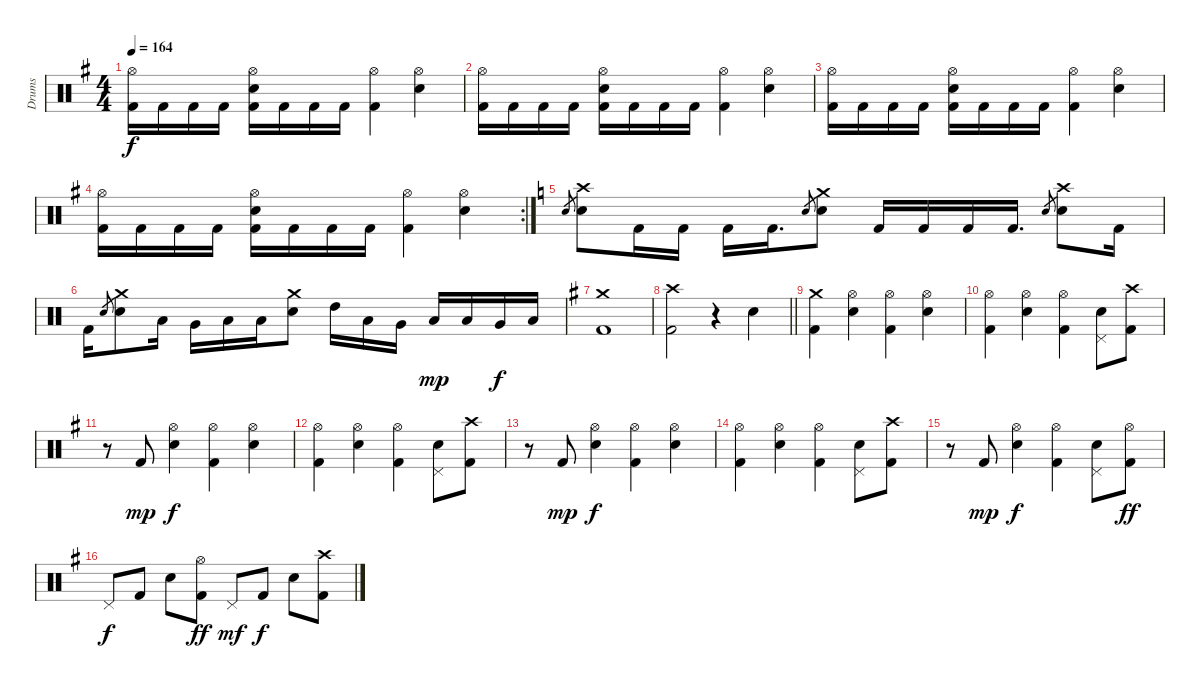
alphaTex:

\track ("Drums" "Drums") {instrument percussion}
\staff
\articulation defaults
\ts (4 4)
\tempo 164
\clef neutral
\ks g
("Hi-Hat (open)" "Kick (hit) 2").16{dy f} "Kick (hit) 2".16 "Kick (hit) 2".16 "Kick (hit) 2".16 ("Hi-Hat (open)" "Snare (hit) 2" "Kick (hit) 2").16 "Kick (hit) 2".16 "Kick (hit) 2".16 "Kick (hit) 2".16 ("Hi-Hat (open)" "Kick (hit) 2").4 ("Hi-Hat (open)" "Snare (hit) 2").4 |
("Hi-Hat (open)" "Kick (hit) 2").16 "Kick (hit) 2".16 "Kick (hit) 2".16 "Kick (hit) 2".16 ("Hi-Hat (open)" "Snare (hit) 2" "Kick (hit) 2").16 "Kick (hit) 2".16 "Kick (hit) 2".16 "Kick (hit) 2".16 ("Hi-Hat (open)" "Kick (hit) 2").4 ("Hi-Hat (open)" "Snare (hit) 2").4 |
("Hi-Hat (open)" "Kick (hit) 2").16 "Kick (hit) 2".16 "Kick (hit) 2".16 "Kick (hit) 2".16 ("Hi-Hat (open)" "Snare (hit) 2" "Kick (hit) 2").16 "Kick (hit) 2".16 "Kick (hit) 2".16 "Kick (hit) 2".16 ("Hi-Hat (open)" "Kick (hit) 2").4 ("Hi-Hat (open)" "Snare (hit) 2").4 |
\rc 2
("Hi-Hat (open)" "Kick (hit) 2").16 "Kick (hit) 2".16 "Kick (hit) 2".16 "Kick (hit) 2".16 ("Hi-Hat (open)" "Snare (hit) 2" "Kick (hit) 2").16 "Kick (hit) 2".16 "Kick (hit) 2".16 "Kick (hit) 2".16 ("Hi-Hat (open)" "Kick (hit) 2").4 ("Hi-Hat (open)" "Snare (hit) 2").4 |
\ks c "Snare (hit) 2".8{gr}
("Crash high (hit)" "Snare (hit) 2").8 "Kick (hit) 2".16 "Kick (hit) 2".16 "Kick (hit) 2".16 "Kick (hit) 2".16{d} "Snare (hit) 2".8{gr} ("Crash medium (hit)" "Snare (hit) 2").8 "Kick (hit) 2".16 "Kick (hit) 2".16 "Kick (hit) 2".16 "Kick (hit) 2".16{d} "Snare (hit) 2".8{gr} ("Crash high (hit)" "Snare (hit) 2").8 "Kick (hit) 2".16 |
"Kick (hit) 2".16 "Snare (hit) 2".8{gr} ("Crash medium (hit)" "Snare (hit) 2").8 "Low Tom (hit)".16 "Very Low Tom (hit)".16 "Low Floor Tom (hit)".16 "Low Floor Tom (hit)".16 ("Crash medium (hit)" "Snare (hit) 2").8 "High Tom (hit)".16 "Low Tom (hit)".16 "Very Low Tom (hit)".16 "Low Floor Tom (hit)".16{dy mp} "Low Tom (hit)".16 "Very Low Tom (hit)".16{dy f} "Low Floor Tom (hit)".16 |
\ks g
("Crash medium (hit)" "Kick (hit) 2").1 |
\barLineRight lightlight
("Crash high (hit)" "Kick (hit) 2").2 r.4 "Snare (hit) 2".4 |
("Crash medium (hit)" "Kick (hit) 2").4 ("Hi-Hat (open)" "Snare (hit) 2").4 ("Hi-Hat (open)" "Kick (hit) 2").4 ("Hi-Hat (open)" "Snare (hit) 2").4 |
("Hi-Hat (open)" "Kick (hit) 2").4 ("Hi-Hat (open)" "Snare (hit) 2").4 ("Hi-Hat (open)" "Kick (hit) 2").4 ("Pedal Hi-Hat (hit)" "Snare (hit) 2").8 ("Crash high (hit)" "Kick (hit) 2").8 |
r.8 "Kick (hit) 2".8{dy mp} ("Hi-Hat (open)" "Snare (hit) 2").4{dy f} ("Hi-Hat (open)" "Kick (hit) 2").4 ("Hi-Hat (open)" "Snare (hit) 2").4 |
("Hi-Hat (open)" "Kick (hit) 2").4 ("Hi-Hat (open)" "Snare (hit) 2").4 ("Hi-Hat (open)" "Kick (hit) 2").4 ("Pedal Hi-Hat (hit)" "Snare (hit) 2").8 ("Crash high (hit)" "Kick (hit) 2").8 |
r.8 "Kick (hit) 2".8{dy mp} ("Hi-Hat (open)" "Snare (hit) 2").4{dy f} ("Hi-Hat (open)" "Kick (hit) 2").4 ("Hi-Hat (open)" "Snare (hit) 2").4 |
("Hi-Hat (open)" "Kick (hit) 2").4 ("Hi-Hat (open)" "Snare (hit) 2").4 ("Hi-Hat (open)" "Kick (hit) 2").4 ("Pedal Hi-Hat (hit)" "Snare (hit) 2").8 ("Crash high (hit)" "Kick (hit) 2").8 |
r.8 "Kick (hit) 2".8{dy mp} ("Hi-Hat (open)" "Snare (hit) 2").4{dy f} ("Hi-Hat (open)" "Kick (hit) 2").4 ("Pedal Hi-Hat (hit)" "Snare (hit) 2").8 ("Hi-Hat (open)" "Kick (hit) 2").8{dy ff} |
"Pedal Hi-Hat (hit)".8{dy f} "Kick (hit) 2".8 "Snare (hit) 2".8 ("Hi-Hat (open)" "Kick (hit) 2").8{dy ff} "Pedal Hi-Hat (hit)".8{dy mf} "Kick (hit) 2".8{dy f} "Snare (hit) 2".8 ("Crash high (hit)" "Kick (hit) 2").8
